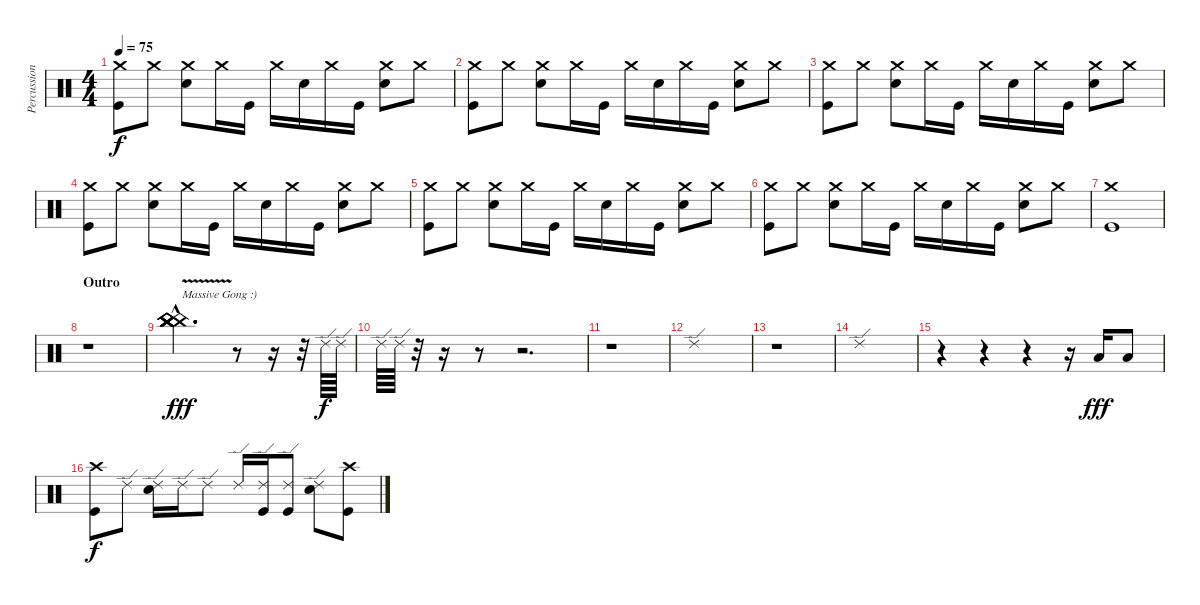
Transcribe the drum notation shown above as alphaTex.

\track ("Percussion" "Percussion") {instrument percussion}
\staff {score}
\articulation defaults
\ts (4 4)
\tempo 75
\clef neutral
\ks c
("Crash medium (hit)" "Kick (hit)").8{dy f} "Crash medium (hit)".8 ("Crash medium (hit)" "Snare (hit) 2").8 "Crash medium (hit)".16 "Kick (hit)".16 "Crash medium (hit)".16 "Snare (hit) 2".16 "Crash medium (hit)".16 "Kick (hit)".16 ("Crash medium (hit)" "Snare (hit) 2").8 "Crash medium (hit)".8 |
("Crash medium (hit)" "Kick (hit)").8 "Crash medium (hit)".8 ("Crash medium (hit)" "Snare (hit) 2").8 "Crash medium (hit)".16 "Kick (hit)".16 "Crash medium (hit)".16 "Snare (hit) 2".16 "Crash medium (hit)".16 "Kick (hit)".16 ("Crash medium (hit)" "Snare (hit) 2").8 "Crash medium (hit)".8 |
("Crash medium (hit)" "Kick (hit)").8 "Crash medium (hit)".8 ("Crash medium (hit)" "Snare (hit) 2").8 "Crash medium (hit)".16 "Kick (hit)".16 "Crash medium (hit)".16 "Snare (hit) 2".16 "Crash medium (hit)".16 "Kick (hit)".16 ("Crash medium (hit)" "Snare (hit) 2").8 "Crash medium (hit)".8 |
("Crash medium (hit)" "Kick (hit)").8 "Crash medium (hit)".8 ("Crash medium (hit)" "Snare (hit) 2").8 "Crash medium (hit)".16 "Kick (hit)".16 "Crash medium (hit)".16 "Snare (hit) 2".16 "Crash medium (hit)".16 "Kick (hit)".16 ("Crash medium (hit)" "Snare (hit) 2").8 "Crash medium (hit)".8 |
("Crash medium (hit)" "Kick (hit)").8 "Crash medium (hit)".8 ("Crash medium (hit)" "Snare (hit) 2").8 "Crash medium (hit)".16 "Kick (hit)".16 "Crash medium (hit)".16 "Snare (hit) 2".16 "Crash medium (hit)".16 "Kick (hit)".16 ("Crash medium (hit)" "Snare (hit) 2").8 "Crash medium (hit)".8 |
("Crash medium (hit)" "Kick (hit)").8 "Crash medium (hit)".8 ("Crash medium (hit)" "Snare (hit) 2").8 "Crash medium (hit)".16 "Kick (hit)".16 "Crash medium (hit)".16 "Snare (hit) 2".16 "Crash medium (hit)".16 "Kick (hit)".16 ("Crash medium (hit)" "Snare (hit) 2").8 "Crash medium (hit)".8 |
("Crash medium (hit)" "Kick (hit)").1 |
\section ("" "Outro")
r.1 |
("China (hit)"{v hac} "China (hit)"{v hac} "China (hit)"{v hac} "China (hit)"{v hac} "China (hit)"{hac} "China (hit)"{v hac}).2{d txt "Massive Gong :)" dy fff volume 16} r.8 r.16 r.32{volume 13} "Ride (edge) 2".64{dy f} "Ride (edge) 2".64 |
"Ride (edge) 2".64 "Ride (edge) 2".64 r.32 r.16 r.8 r.2{d} |
r.1 |
"Ride (edge) 2".1{volume 13} |
r.1 |
"Ride (edge) 2".1 |
r.4 r.4 r.4 r.16 "Low Tom (hit)".16{dy fff} "Low Tom (hit)".8 |
("Crash high (hit)" "Kick (hit)").8{dy f} "Ride (edge) 2".8 ("Ride (edge) 2" "Snare (hit) 2").16 "Ride (edge) 2".16 "Ride (edge) 2".8 "Ride (edge) 2".16 ("Ride (edge) 2" "Kick (hit)").16 ("Ride (edge) 2" "Kick (hit)").8 ("Ride (edge) 2" "Snare (hit) 2").8 ("Crash high (hit)" "Kick (hit)").8
